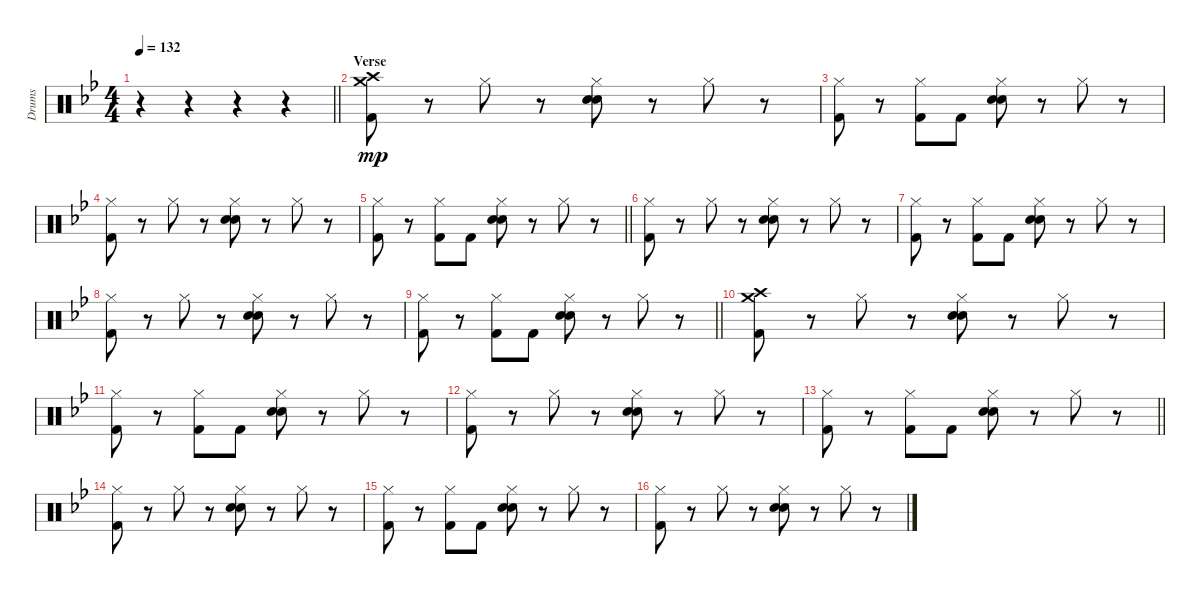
\track ("Drums" "Drums") {instrument percussion}
\staff
\articulation defaults
\ts (4 4)
\tempo 132
\clef neutral
\barLineRight lightlight
\ks bb
r.4{dy mp} r.4 r.4 r.4 |
\section ("" "Verse")
("Crash high (hit)" "Crash medium (hit)" "Kick (hit) 2").8 r.8 "Hi-Hat (closed)".8 r.8 ("Hi-Hat (closed)" "Electric Snare (hit)" "Electric Snare (hit)").8 r.8 "Hi-Hat (closed)".8 r.8 |
("Hi-Hat (closed)" "Kick (hit) 2").8 r.8 ("Hi-Hat (closed)" "Kick (hit) 2").8 "Kick (hit) 2".8 ("Hi-Hat (closed)" "Electric Snare (hit)" "Electric Snare (hit)").8 r.8 "Hi-Hat (closed)".8 r.8 |
("Hi-Hat (closed)" "Kick (hit) 2").8 r.8 "Hi-Hat (closed)".8 r.8 ("Hi-Hat (closed)" "Electric Snare (hit)" "Electric Snare (hit)").8 r.8 "Hi-Hat (closed)".8 r.8 |
\barLineRight lightlight
("Hi-Hat (closed)" "Kick (hit) 2").8 r.8 ("Hi-Hat (closed)" "Kick (hit) 2").8 "Kick (hit) 2".8 ("Hi-Hat (closed)" "Electric Snare (hit)" "Electric Snare (hit)").8 r.8 "Hi-Hat (closed)".8 r.8 |
("Hi-Hat (closed)" "Kick (hit) 2").8 r.8 "Hi-Hat (closed)".8 r.8 ("Hi-Hat (closed)" "Electric Snare (hit)" "Electric Snare (hit)").8 r.8 "Hi-Hat (closed)".8 r.8 |
("Hi-Hat (closed)" "Kick (hit) 2").8 r.8 ("Hi-Hat (closed)" "Kick (hit) 2").8 "Kick (hit) 2".8 ("Hi-Hat (closed)" "Electric Snare (hit)" "Electric Snare (hit)").8 r.8 "Hi-Hat (closed)".8 r.8 |
("Hi-Hat (closed)" "Kick (hit) 2").8 r.8 "Hi-Hat (closed)".8 r.8 ("Hi-Hat (closed)" "Electric Snare (hit)" "Electric Snare (hit)").8 r.8 "Hi-Hat (closed)".8 r.8 |
\barLineRight lightlight
("Hi-Hat (closed)" "Kick (hit) 2").8 r.8 ("Hi-Hat (closed)" "Kick (hit) 2").8 "Kick (hit) 2".8 ("Hi-Hat (closed)" "Electric Snare (hit)" "Electric Snare (hit)").8 r.8 "Hi-Hat (closed)".8 r.8 |
("Crash high (hit)" "Crash medium (hit)" "Kick (hit) 2").8 r.8 "Hi-Hat (closed)".8 r.8 ("Hi-Hat (closed)" "Electric Snare (hit)" "Electric Snare (hit)").8 r.8 "Hi-Hat (closed)".8 r.8 |
("Hi-Hat (closed)" "Kick (hit) 2").8 r.8 ("Hi-Hat (closed)" "Kick (hit) 2").8 "Kick (hit) 2".8 ("Hi-Hat (closed)" "Electric Snare (hit)" "Electric Snare (hit)").8 r.8 "Hi-Hat (closed)".8 r.8 |
("Hi-Hat (closed)" "Kick (hit) 2").8 r.8 "Hi-Hat (closed)".8 r.8 ("Hi-Hat (closed)" "Electric Snare (hit)" "Electric Snare (hit)").8 r.8 "Hi-Hat (closed)".8 r.8 |
\barLineRight lightlight
("Hi-Hat (closed)" "Kick (hit) 2").8 r.8 ("Hi-Hat (closed)" "Kick (hit) 2").8 "Kick (hit) 2".8 ("Hi-Hat (closed)" "Electric Snare (hit)" "Electric Snare (hit)").8 r.8 "Hi-Hat (closed)".8 r.8 |
("Hi-Hat (closed)" "Kick (hit) 2").8 r.8 "Hi-Hat (closed)".8 r.8 ("Hi-Hat (closed)" "Electric Snare (hit)" "Electric Snare (hit)").8 r.8 "Hi-Hat (closed)".8 r.8 |
("Hi-Hat (closed)" "Kick (hit) 2").8 r.8 ("Hi-Hat (closed)" "Kick (hit) 2").8 "Kick (hit) 2".8 ("Hi-Hat (closed)" "Electric Snare (hit)" "Electric Snare (hit)").8 r.8 "Hi-Hat (closed)".8 r.8 |
("Hi-Hat (closed)" "Kick (hit) 2").8 r.8 "Hi-Hat (closed)".8 r.8 ("Hi-Hat (closed)" "Electric Snare (hit)" "Electric Snare (hit)").8 r.8 "Hi-Hat (closed)".8 r.8
